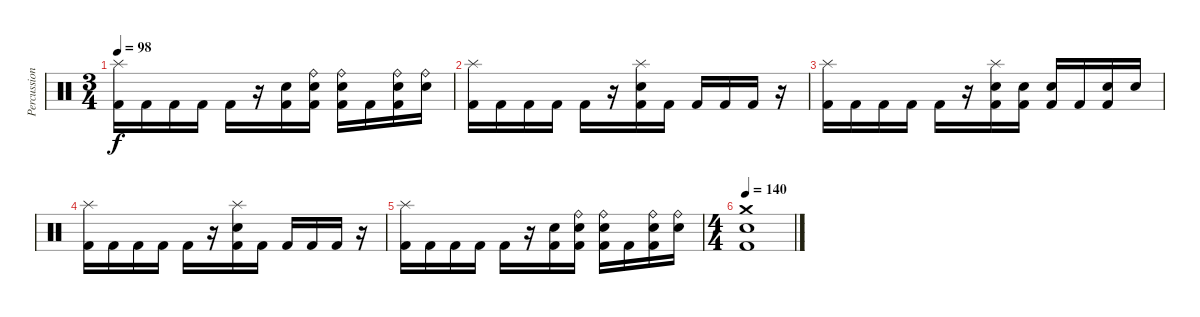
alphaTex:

\track ("Percussion" "Percussion") {instrument percussion}
\staff {score}
\articulation defaults
\ts (3 4)
\tempo 98
\clef neutral
\ks c
("Splash (hit)" "Kick (hit) 2").16{dy f} "Kick (hit) 2".16 "Kick (hit) 2".16 "Kick (hit) 2".16 "Kick (hit) 2".16 r.16 ("Snare (hit) 2" "Kick (hit) 2").16 ("Ride (bell)" "Snare (hit) 2" "Kick (hit) 2").16 ("Ride (bell)" "Snare (hit) 2" "Kick (hit) 2").16 "Kick (hit) 2".16 ("Ride (bell)" "Snare (hit) 2" "Kick (hit) 2").16 ("Ride (bell)" "Snare (hit) 2").16 |
("Splash (hit)" "Kick (hit) 2").16 "Kick (hit) 2".16 "Kick (hit) 2".16 "Kick (hit) 2".16 "Kick (hit) 2".16 r.16 ("Splash (hit)" "Snare (hit) 2" "Kick (hit) 2").16 "Kick (hit) 2".16 "Kick (hit) 2".16 "Kick (hit) 2".16 "Kick (hit) 2".16 r.16 |
("Splash (hit)" "Kick (hit) 2").16 "Kick (hit) 2".16 "Kick (hit) 2".16 "Kick (hit) 2".16 "Kick (hit) 2".16 r.16 ("Splash (hit)" "Snare (hit) 2" "Kick (hit) 2").16 ("Snare (hit) 2" "Kick (hit) 2").16 ("Snare (hit) 2" "Kick (hit) 2").16 "Kick (hit) 2".16 ("Snare (hit) 2" "Kick (hit) 2").16 "Snare (hit) 2".16 |
("Splash (hit)" "Kick (hit) 2").16 "Kick (hit) 2".16 "Kick (hit) 2".16 "Kick (hit) 2".16 "Kick (hit) 2".16 r.16 ("Splash (hit)" "Snare (hit) 2" "Kick (hit) 2").16 "Kick (hit) 2".16 "Kick (hit) 2".16 "Kick (hit) 2".16 "Kick (hit) 2".16 r.16 |
("Splash (hit)" "Kick (hit) 2").16 "Kick (hit) 2".16 "Kick (hit) 2".16 "Kick (hit) 2".16 "Kick (hit) 2".16 r.16 ("Snare (hit) 2" "Kick (hit) 2").16 ("Ride (bell)" "Snare (hit) 2" "Kick (hit) 2").16 ("Ride (bell)" "Snare (hit) 2" "Kick (hit) 2").16 "Kick (hit) 2".16 ("Ride (bell)" "Snare (hit) 2" "Kick (hit) 2").16 ("Ride (bell)" "Snare (hit) 2").16 |
\ts (4 4)
\tempo 140
("Crash medium (hit)" "Snare (hit) 2" "Kick (hit) 2").1
